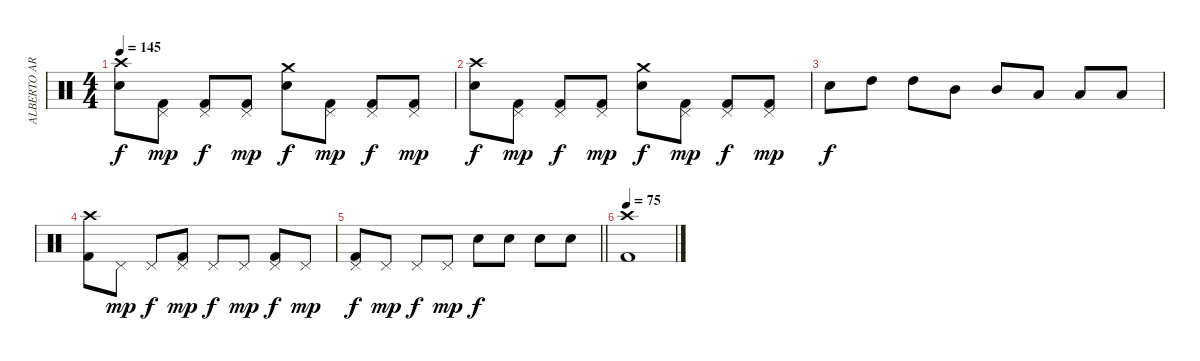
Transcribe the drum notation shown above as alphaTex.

\track ("ALBERTO ARDINES" "ALBERTO AR") {instrument percussion}
\staff {score}
\articulation defaults
\ts (4 4)
\tempo 145
\clef neutral
\ks c
("Crash high (hit)" "Electric Snare (hit)").8{dy f} ("Pedal Hi-Hat (hit)" "Kick (hit) 2").8{dy mp} ("Pedal Hi-Hat (hit)" "Kick (hit) 2").8{dy f} ("Pedal Hi-Hat (hit)" "Kick (hit) 2").8{dy mp} ("Crash medium (hit)" "Electric Snare (hit)").8{dy f} ("Pedal Hi-Hat (hit)" "Kick (hit) 2").8{dy mp} ("Pedal Hi-Hat (hit)" "Kick (hit) 2").8{dy f} ("Pedal Hi-Hat (hit)" "Kick (hit) 2").8{dy mp} |
("Crash high (hit)" "Electric Snare (hit)").8{dy f} ("Pedal Hi-Hat (hit)" "Kick (hit) 2").8{dy mp} ("Pedal Hi-Hat (hit)" "Kick (hit) 2").8{dy f} ("Pedal Hi-Hat (hit)" "Kick (hit) 2").8{dy mp} ("Crash medium (hit)" "Electric Snare (hit)").8{dy f} ("Pedal Hi-Hat (hit)" "Kick (hit) 2").8{dy mp} ("Pedal Hi-Hat (hit)" "Kick (hit) 2").8{dy f} ("Pedal Hi-Hat (hit)" "Kick (hit) 2").8{dy mp} |
"Electric Snare (hit)".8{dy f} "High Tom (hit)".8 "High Tom (hit)".8 "Mid Tom (hit)".8 "Mid Tom (hit)".8 "Low Tom (hit)".8 "Low Tom (hit)".8 "Low Tom (hit)".8 |
("Crash high (hit)" "Kick (hit) 2").8 "Pedal Hi-Hat (hit)".8{dy mp} "Pedal Hi-Hat (hit)".8{dy f} ("Pedal Hi-Hat (hit)" "Kick (hit) 2").8{dy mp} "Pedal Hi-Hat (hit)".8{dy f} "Pedal Hi-Hat (hit)".8{dy mp} ("Pedal Hi-Hat (hit)" "Kick (hit) 2").8{dy f} "Pedal Hi-Hat (hit)".8{dy mp} |
\barLineRight lightlight
("Pedal Hi-Hat (hit)" "Kick (hit) 2").8{dy f} "Pedal Hi-Hat (hit)".8{dy mp} "Pedal Hi-Hat (hit)".8{dy f} "Pedal Hi-Hat (hit)".8{dy mp} "Electric Snare (hit)".8{dy f} "Electric Snare (hit)".8 "Electric Snare (hit)".8 "Electric Snare (hit)".8 |
\tempo 75
("Crash high (hit)" "Kick (hit) 2").1
